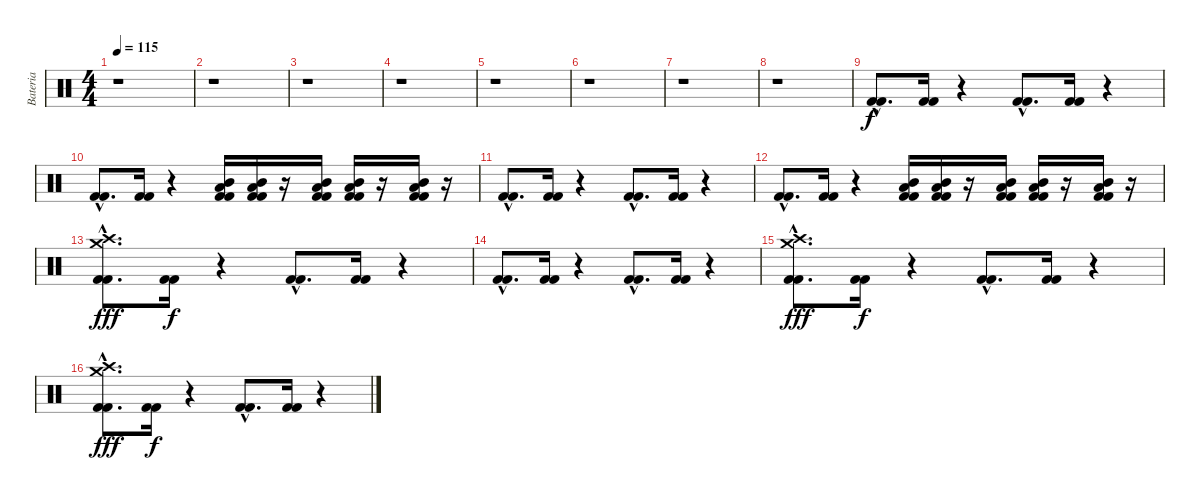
\track ("Bateria" "Bateria") {instrument percussion}
\staff {score}
\articulation defaults
\ts (4 4)
\tempo 115
\clef neutral
\ks c
r.1{dy f} |
r.1 |
r.1 |
r.1 |
r.1 |
r.1 |
r.1 |
r.1 |
("Kick (hit) 2"{hac} "Kick (hit) 2"{hac}).8{d} ("Kick (hit) 2" "Kick (hit) 2").16 r.4 ("Kick (hit) 2"{hac} "Kick (hit) 2"{hac}).8{d} ("Kick (hit) 2" "Kick (hit) 2").16 r.4 |
("Kick (hit) 2"{hac} "Kick (hit) 2"{hac}).8{d} ("Kick (hit) 2" "Kick (hit) 2").16 r.4 ("Low Tom (hit)" "Mid Tom (hit)" "Kick (hit) 2" "Kick (hit) 2").16 ("Low Tom (hit)" "Mid Tom (hit)" "Kick (hit) 2" "Kick (hit) 2").16 r.16 ("Low Tom (hit)" "Mid Tom (hit)" "Kick (hit) 2" "Kick (hit) 2").16 ("Low Tom (hit)" "Mid Tom (hit)" "Kick (hit) 2" "Kick (hit) 2").16 r.16 ("Low Tom (hit)" "Mid Tom (hit)" "Kick (hit) 2" "Kick (hit) 2").16 r.16 |
("Kick (hit) 2"{hac} "Kick (hit) 2"{hac}).8{d} ("Kick (hit) 2" "Kick (hit) 2").16 r.4 ("Kick (hit) 2"{hac} "Kick (hit) 2"{hac}).8{d} ("Kick (hit) 2" "Kick (hit) 2").16 r.4 |
("Kick (hit) 2"{hac} "Kick (hit) 2"{hac}).8{d} ("Kick (hit) 2" "Kick (hit) 2").16 r.4 ("Low Tom (hit)" "Mid Tom (hit)" "Kick (hit) 2" "Kick (hit) 2").16 ("Low Tom (hit)" "Mid Tom (hit)" "Kick (hit) 2" "Kick (hit) 2").16 r.16 ("Low Tom (hit)" "Mid Tom (hit)" "Kick (hit) 2" "Kick (hit) 2").16 ("Low Tom (hit)" "Mid Tom (hit)" "Kick (hit) 2" "Kick (hit) 2").16 r.16 ("Low Tom (hit)" "Mid Tom (hit)" "Kick (hit) 2" "Kick (hit) 2").16 r.16 |
("Crash high (hit)" "Crash medium (hit)" "Kick (hit) 2"{hac} "Kick (hit) 2"{hac}).8{d dy fff} ("Kick (hit) 2" "Kick (hit) 2").16{dy f} r.4 ("Kick (hit) 2"{hac} "Kick (hit) 2"{hac}).8{d} ("Kick (hit) 2" "Kick (hit) 2").16 r.4 |
("Kick (hit) 2"{hac} "Kick (hit) 2"{hac}).8{d} ("Kick (hit) 2" "Kick (hit) 2").16 r.4 ("Kick (hit) 2"{hac} "Kick (hit) 2"{hac}).8{d} ("Kick (hit) 2" "Kick (hit) 2").16 r.4 |
("Crash high (hit)" "Crash medium (hit)" "Kick (hit) 2"{hac} "Kick (hit) 2"{hac}).8{d dy fff} ("Kick (hit) 2" "Kick (hit) 2").16{dy f} r.4 ("Kick (hit) 2"{hac} "Kick (hit) 2"{hac}).8{d} ("Kick (hit) 2" "Kick (hit) 2").16 r.4 |
("Crash high (hit)" "Crash medium (hit)" "Kick (hit) 2"{hac} "Kick (hit) 2"{hac}).8{d dy fff} ("Kick (hit) 2" "Kick (hit) 2").16{dy f} r.4 ("Kick (hit) 2"{hac} "Kick (hit) 2"{hac}).8{d} ("Kick (hit) 2" "Kick (hit) 2").16 r.4
